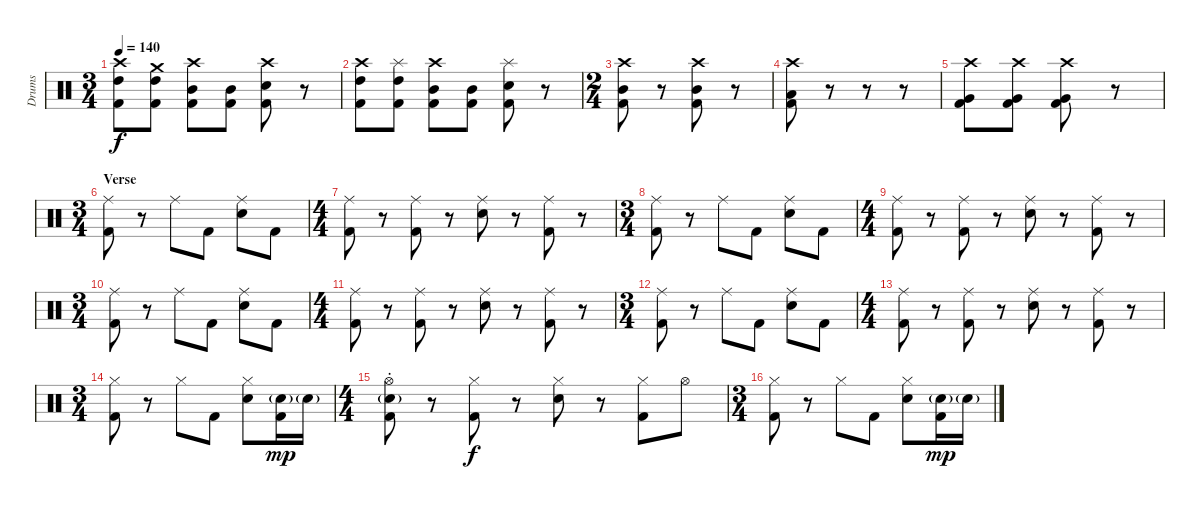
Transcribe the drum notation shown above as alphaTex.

\track ("Drums" "Drums") {instrument percussion}
\staff {score}
\articulation defaults
\ts (3 4)
\tempo 140
\clef neutral
\ks c
("Crash high (hit)" "High Tom (hit)" "Kick (hit) 2").8{dy f} ("Crash medium (hit)" "High Tom (hit)" "Kick (hit) 2").8 ("Crash high (hit)" "Mid Tom (hit)" "Kick (hit) 2").8 ("Mid Tom (hit)" "Kick (hit) 2").8 ("Crash high (hit)" "Snare (hit) 2" "Kick (hit) 2").8 r.8 |
("Crash high (hit)" "High Tom (hit)" "Kick (hit) 2").8 ("Splash (hit)" "High Tom (hit)" "Kick (hit) 2").8 ("Crash high (hit)" "Mid Tom (hit)" "Kick (hit) 2").8 ("Mid Tom (hit)" "Kick (hit) 2").8 ("Splash (hit)" "Snare (hit) 2" "Kick (hit) 2").8 r.8 |
\ts (2 4)
("Crash high (hit)" "Mid Tom (hit)" "Kick (hit) 2").8 r.8 ("Crash high (hit)" "Mid Tom (hit)" "Kick (hit) 2").8 r.8 |
("Crash high (hit)" "Low Tom (hit)" "Kick (hit) 2").8 r.8 r.8 r.8 |
("Crash high (hit)" "Very Low Tom (hit)" "Kick (hit) 2").8 ("Crash high (hit)" "Very Low Tom (hit)" "Kick (hit) 2").8 ("Crash high (hit)" "Very Low Tom (hit)" "Kick (hit) 2").8 r.8 |
\ts (3 4)
\section ("" "Verse")
("Ride (middle)" "Kick (hit) 2").8 r.8 "Ride (middle)".8 "Kick (hit) 2".8 ("Ride (middle)" "Snare (hit) 2").8 "Kick (hit) 2".8 |
\ts (4 4)
("Ride (middle)" "Kick (hit) 2").8 r.8 ("Ride (middle)" "Kick (hit) 2").8 r.8 ("Ride (middle)" "Snare (hit) 2").8 r.8 ("Ride (middle)" "Kick (hit) 2").8 r.8 |
\ts (3 4)
("Ride (middle)" "Kick (hit) 2").8 r.8 "Ride (middle)".8 "Kick (hit) 2".8 ("Ride (middle)" "Snare (hit) 2").8 "Kick (hit) 2".8 |
\ts (4 4)
("Ride (middle)" "Kick (hit) 2").8 r.8 ("Ride (middle)" "Kick (hit) 2").8 r.8 ("Ride (middle)" "Snare (hit) 2").8 r.8 ("Ride (middle)" "Kick (hit) 2").8 r.8 |
\ts (3 4)
("Ride (middle)" "Kick (hit) 2").8 r.8 "Ride (middle)".8 "Kick (hit) 2".8 ("Ride (middle)" "Snare (hit) 2").8 "Kick (hit) 2".8 |
\ts (4 4)
("Ride (middle)" "Kick (hit) 2").8 r.8 ("Ride (middle)" "Kick (hit) 2").8 r.8 ("Ride (middle)" "Snare (hit) 2").8 r.8 ("Ride (middle)" "Kick (hit) 2").8 r.8 |
\ts (3 4)
("Ride (middle)" "Kick (hit) 2").8 r.8 "Ride (middle)".8 "Kick (hit) 2".8 ("Ride (middle)" "Snare (hit) 2").8 "Kick (hit) 2".8 |
\ts (4 4)
("Ride (middle)" "Kick (hit) 2").8 r.8 ("Ride (middle)" "Kick (hit) 2").8 r.8 ("Ride (middle)" "Snare (hit) 2").8 r.8 ("Ride (middle)" "Kick (hit) 2").8 r.8 |
\ts (3 4)
("Hi-Hat (closed)" "Kick (hit) 2").8 r.8 "Hi-Hat (closed)".8 "Kick (hit) 2".8 ("Hi-Hat (closed)" "Snare (hit) 2").8 ("Snare (hit) 2"{g} "Kick (hit) 2").16{dy mp} "Snare (hit) 2"{g}.16 |
\ts (4 4)
("Hi-Hat (open)"{st} "Snare (hit) 2"{g} "Kick (hit) 2").8 r.8 ("Hi-Hat (closed)" "Kick (hit) 2").8{dy f} r.8 ("Hi-Hat (closed)" "Snare (hit) 2").8 r.8 ("Hi-Hat (closed)" "Kick (hit) 2").8 "Hi-Hat (open)".8 |
\ts (3 4)
("Hi-Hat (closed)" "Kick (hit) 2").8 r.8 "Hi-Hat (closed)".8 "Kick (hit) 2".8 ("Hi-Hat (closed)" "Snare (hit) 2").8 ("Snare (hit) 2"{g} "Kick (hit) 2").16{dy mp} "Snare (hit) 2"{g}.16
